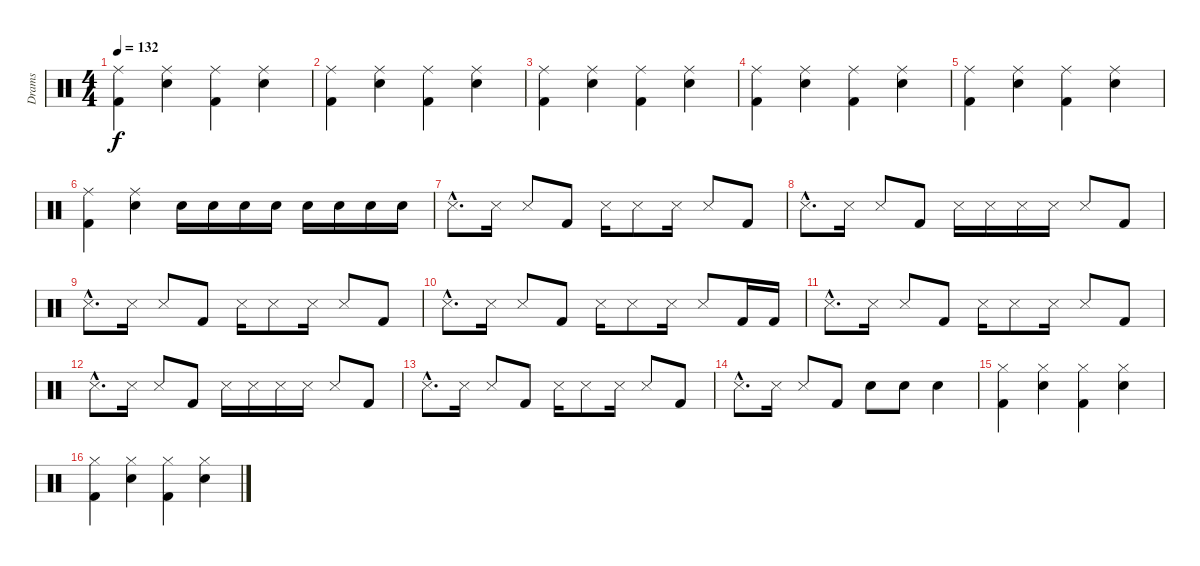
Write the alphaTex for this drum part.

\track ("Drams" "Drams") {instrument percussion}
\staff {score}
\articulation defaults
\ts (4 4)
\tempo 132
\clef neutral
\ks c
("Ride (middle)" "Kick (hit) 2").4{dy f} ("Ride (middle)" "Snare (hit) 2").4 ("Ride (middle)" "Kick (hit) 2").4 ("Ride (middle)" "Snare (hit) 2").4 |
("Ride (middle)" "Kick (hit) 2").4 ("Ride (middle)" "Snare (hit) 2").4 ("Ride (middle)" "Kick (hit) 2").4 ("Ride (middle)" "Snare (hit) 2").4 |
("Ride (middle)" "Kick (hit) 2").4 ("Ride (middle)" "Snare (hit) 2").4 ("Ride (middle)" "Kick (hit) 2").4 ("Ride (middle)" "Snare (hit) 2").4 |
("Ride (middle)" "Kick (hit) 2").4 ("Ride (middle)" "Snare (hit) 2").4 ("Ride (middle)" "Kick (hit) 2").4 ("Ride (middle)" "Snare (hit) 2").4 |
("Ride (middle)" "Kick (hit) 2").4 ("Ride (middle)" "Snare (hit) 2").4 ("Ride (middle)" "Kick (hit) 2").4 ("Ride (middle)" "Snare (hit) 2").4 |
("Ride (middle)" "Kick (hit) 2").4 ("Ride (middle)" "Snare (hit) 2").4 "Snare (hit) 2".16 "Snare (hit) 2".16 "Snare (hit) 2".16 "Snare (hit) 2".16 "Snare (hit) 2".16 "Snare (hit) 2".16 "Snare (hit) 2".16 "Snare (hit) 2".16 |
"Snare (side stick) 3"{hac}.8{d} "Snare (side stick) 3".16 "Snare (side stick) 3".8 "Kick (hit) 2".8 "Snare (side stick) 3".16 "Snare (side stick) 3".8 "Snare (side stick) 3".16 "Snare (side stick) 3".8 "Kick (hit) 2".8 |
"Snare (side stick) 3"{hac}.8{d} "Snare (side stick) 3".16 "Snare (side stick) 3".8 "Kick (hit) 2".8 "Snare (side stick) 3".16 "Snare (side stick) 3".16 "Snare (side stick) 3".16 "Snare (side stick) 3".16 "Snare (side stick) 3".8 "Kick (hit) 2".8 |
"Snare (side stick) 3"{hac}.8{d} "Snare (side stick) 3".16 "Snare (side stick) 3".8 "Kick (hit) 2".8 "Snare (side stick) 3".16 "Snare (side stick) 3".8 "Snare (side stick) 3".16 "Snare (side stick) 3".8 "Kick (hit) 2".8 |
"Snare (side stick) 3"{hac}.8{d} "Snare (side stick) 3".16 "Snare (side stick) 3".8 "Kick (hit) 2".8 "Snare (side stick) 3".16 "Snare (side stick) 3".8 "Snare (side stick) 3".16 "Snare (side stick) 3".8 "Kick (hit) 2".16 "Kick (hit) 2".16 |
"Snare (side stick) 3"{hac}.8{d} "Snare (side stick) 3".16 "Snare (side stick) 3".8 "Kick (hit) 2".8 "Snare (side stick) 3".16 "Snare (side stick) 3".8 "Snare (side stick) 3".16 "Snare (side stick) 3".8 "Kick (hit) 2".8 |
"Snare (side stick) 3"{hac}.8{d} "Snare (side stick) 3".16 "Snare (side stick) 3".8 "Kick (hit) 2".8 "Snare (side stick) 3".16 "Snare (side stick) 3".16 "Snare (side stick) 3".16 "Snare (side stick) 3".16 "Snare (side stick) 3".8 "Kick (hit) 2".8 |
"Snare (side stick) 3"{hac}.8{d} "Snare (side stick) 3".16 "Snare (side stick) 3".8 "Kick (hit) 2".8 "Snare (side stick) 3".16 "Snare (side stick) 3".8 "Snare (side stick) 3".16 "Snare (side stick) 3".8 "Kick (hit) 2".8 |
"Snare (side stick) 3"{hac}.8{d} "Snare (side stick) 3".16 "Snare (side stick) 3".8 "Kick (hit) 2".8 "Snare (hit) 2".8 "Snare (hit) 2".8 "Snare (hit) 2".4 |
("Hi-Hat (closed)" "Kick (hit) 2").4 ("Hi-Hat (closed)" "Snare (hit) 2").4 ("Hi-Hat (closed)" "Kick (hit) 2").4 ("Hi-Hat (closed)" "Snare (hit) 2").4 |
("Hi-Hat (closed)" "Kick (hit) 2").4 ("Hi-Hat (closed)" "Snare (hit) 2").4 ("Hi-Hat (closed)" "Kick (hit) 2").4 ("Hi-Hat (closed)" "Snare (hit) 2").4
